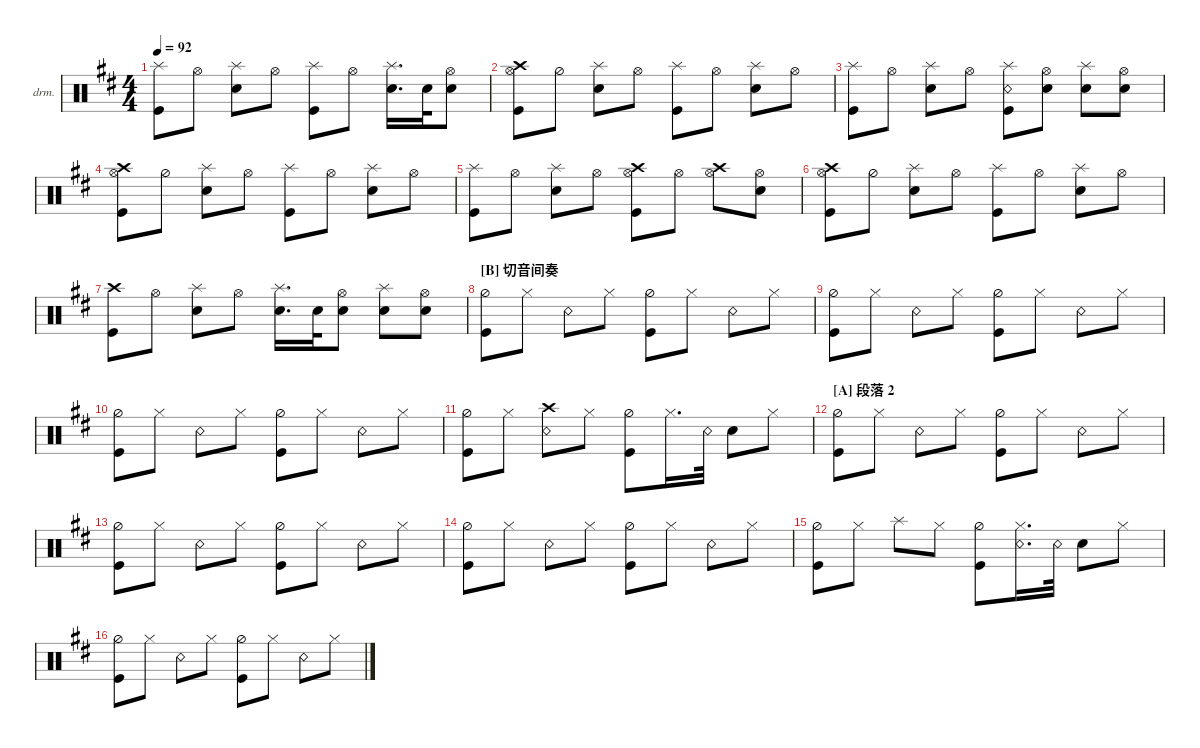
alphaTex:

\defaultSystemsLayout 4
\hideDynamics
\bracketExtendMode nobrackets
\firstSystemTrackNameOrientation horizontal
\otherSystemsTrackNameOrientation horizontal
\track ("Drumkit" "drm.") {instrument percussion}
\staff {score}
\articulation defaults
\ts (4 4)
\tempo 92
\clef neutral
\ks d
("Kick (hit)" "Splash (hit)").8{dy mf} "Hi-Hat (open)".8 ("Snare (hit) 2" "Splash (hit)").8 "Hi-Hat (open)".8 ("Kick (hit)" "Splash (hit)").8 "Hi-Hat (open)".8 ("Snare (hit) 2" "Splash (hit)").16{d} "Snare (hit) 2".32 ("Snare (hit) 2" "Hi-Hat (open)").8 |
("Crash high (hit)" "Kick (hit)" "Hi-Hat (open)").8 "Hi-Hat (half)".8 ("Snare (hit) 2" "Splash (hit)").8 "Hi-Hat (open)".8 ("Kick (hit)" "Splash (hit)").8 "Hi-Hat (open)".8 ("Snare (hit) 2" "Splash (hit)").8 "Hi-Hat (open)".8 |
("Kick (hit)" "Splash (hit)").8 "Hi-Hat (open)".8 ("Snare (hit) 2" "Splash (hit)").8 "Hi-Hat (open)".8 ("Kick (hit)" "Splash (hit)" "Snare (rim shot)").8 ("Hi-Hat (open)" "Snare (hit) 2").8 ("Snare (hit) 2" "Splash (hit)").8 ("Snare (hit) 2" "Hi-Hat (open)").8 |
("Crash high (hit)" "Kick (hit)" "Hi-Hat (open)").8 "Hi-Hat (half)".8 ("Snare (hit) 2" "Splash (hit)").8 "Hi-Hat (open)".8 ("Kick (hit)" "Splash (hit)").8 "Hi-Hat (open)".8 ("Snare (hit) 2" "Splash (hit)").8 "Hi-Hat (open)".8 |
("Kick (hit)" "Splash (hit)").8 "Hi-Hat (open)".8 ("Snare (hit) 2" "Splash (hit)").8 "Hi-Hat (open)".8 ("Kick (hit)" "Hi-Hat (open)" "Crash high (hit)").8 "Hi-Hat (open)".8 ("Hi-Hat (open)" "Crash high (hit)").8 ("Snare (hit) 2" "Hi-Hat (open)").8 |
("Crash high (hit)" "Kick (hit)" "Hi-Hat (open)").8 "Hi-Hat (half)".8 ("Snare (hit) 2" "Splash (hit)").8 "Hi-Hat (open)".8 ("Kick (hit)" "Splash (hit)").8 "Hi-Hat (open)".8 ("Snare (hit) 2" "Splash (hit)").8 "Hi-Hat (open)".8 |
("Kick (hit)" "Crash high (hit)").8 "Hi-Hat (open)".8 ("Snare (hit) 2" "Splash (hit)").8 "Hi-Hat (open)".8 ("Snare (hit) 2" "Splash (hit)").16{d} "Snare (hit) 2".32 ("Snare (hit) 2" "Hi-Hat (open)").8 ("Snare (hit) 2" "Splash (hit)").8 ("Snare (hit) 2" "Hi-Hat (open)").8 |
\section ("B" "切音间奏")
("Hi-Hat (half)" "Kick (hit)").8 "Hi-Hat (closed)".8 "Snare (rim shot)".8 "Hi-Hat (closed)".8 ("Hi-Hat (half)" "Kick (hit)").8 "Hi-Hat (closed)".8 "Snare (rim shot)".8 "Hi-Hat (closed)".8 |
("Hi-Hat (half)" "Kick (hit)").8 "Hi-Hat (closed)".8 "Snare (rim shot)".8 "Hi-Hat (closed)".8 ("Hi-Hat (half)" "Kick (hit)").8 "Hi-Hat (closed)".8 "Snare (rim shot)".8 "Hi-Hat (closed)".8 |
("Hi-Hat (half)" "Kick (hit)").8 "Hi-Hat (closed)".8 "Snare (rim shot)".8 "Hi-Hat (closed)".8 ("Hi-Hat (half)" "Kick (hit)").8 "Hi-Hat (closed)".8 "Snare (rim shot)".8 "Hi-Hat (closed)".8 |
("Hi-Hat (half)" "Kick (hit)").8 "Hi-Hat (closed)".8 ("Snare (rim shot)" "Crash high (hit)").8 "Hi-Hat (closed)".8 ("Hi-Hat (half)" "Kick (hit)").8 "Hi-Hat (closed)".16{d} "Snare (rim shot)".32 "Snare (hit) 2".8 "Hi-Hat (closed)".8 |
\section ("A" "段落 2")
("Hi-Hat (half)" "Kick (hit)").8 "Hi-Hat (closed)".8 "Snare (rim shot)".8 "Hi-Hat (closed)".8 ("Hi-Hat (half)" "Kick (hit)").8 "Hi-Hat (closed)".8 "Snare (rim shot)".8 "Hi-Hat (closed)".8 |
("Hi-Hat (half)" "Kick (hit)").8 "Hi-Hat (closed)".8 "Snare (rim shot)".8 "Hi-Hat (closed)".8 ("Hi-Hat (half)" "Kick (hit)").8 "Hi-Hat (closed)".8 "Snare (rim shot)".8 "Hi-Hat (closed)".8 |
("Hi-Hat (half)" "Kick (hit)").8 "Hi-Hat (closed)".8 "Snare (rim shot)".8 "Hi-Hat (closed)".8 ("Hi-Hat (half)" "Kick (hit)").8 "Hi-Hat (closed)".8 "Snare (rim shot)".8 "Hi-Hat (closed)".8 |
("Hi-Hat (half)" "Kick (hit)").8 "Hi-Hat (closed)".8 "Splash (hit)".8 "Hi-Hat (closed)".8 ("Hi-Hat (half)" "Kick (hit)").8 ("Hi-Hat (closed)" "Snare (rim shot)").16{d} "Snare (rim shot)".32 "Snare (hit) 2".8 "Hi-Hat (closed)".8 |
("Hi-Hat (half)" "Kick (hit)").8 "Hi-Hat (closed)".8 "Snare (rim shot)".8 "Hi-Hat (closed)".8 ("Hi-Hat (half)" "Kick (hit)").8 "Hi-Hat (closed)".8 "Snare (rim shot)".8 "Hi-Hat (closed)".8
